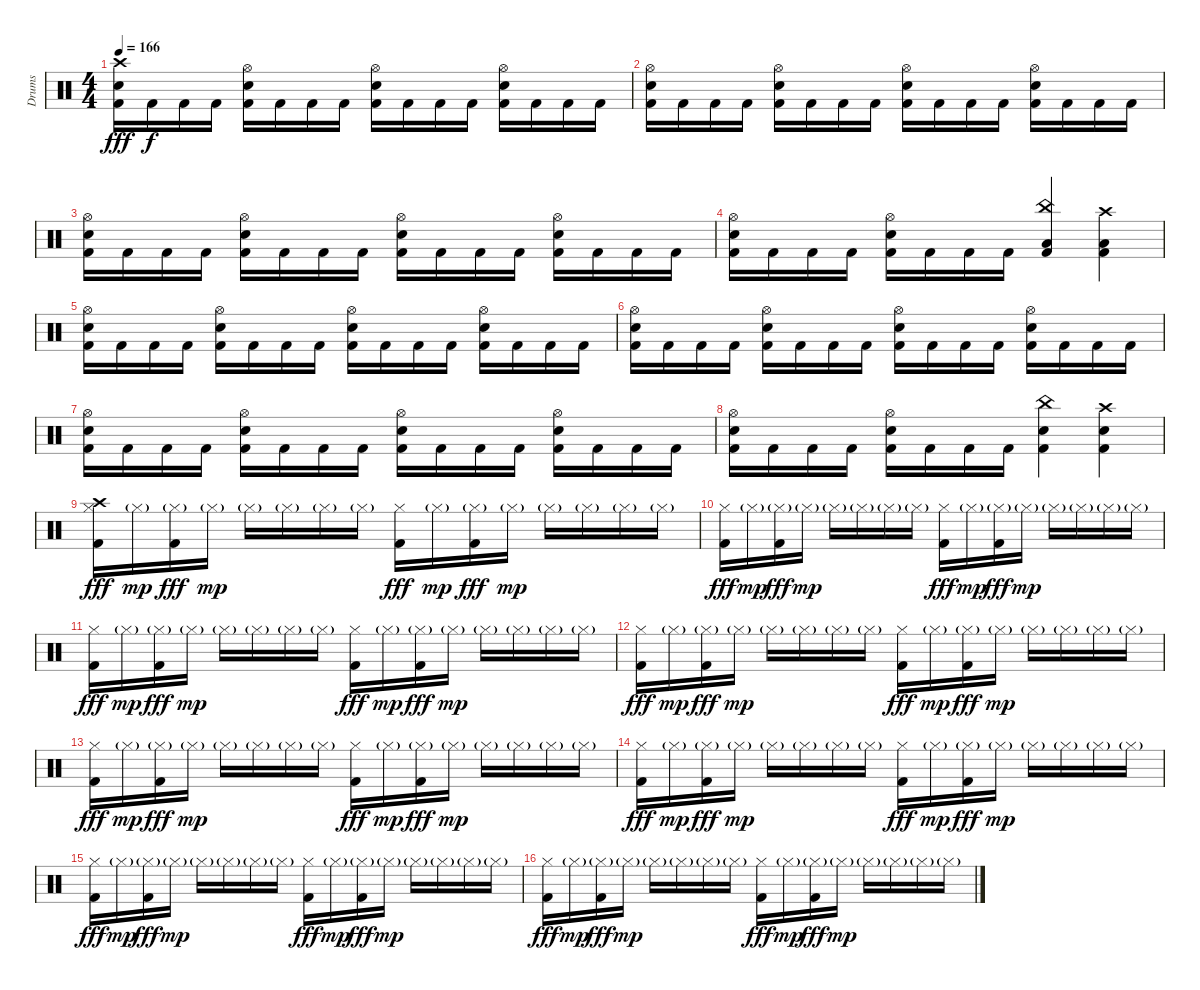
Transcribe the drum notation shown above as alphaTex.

\track ("Drums" "Drums") {instrument percussion}
\staff {score}
\articulation defaults
\ts (4 4)
\tempo 166
\clef neutral
\ks c
("Crash high (hit)" "Snare (hit) 2" "Kick (hit) 2").16{dy fff volume 16 balance 16} "Kick (hit) 2".16{dy f} "Kick (hit) 2".16 "Kick (hit) 2".16 ("Hi-Hat (open)" "Snare (hit) 2" "Kick (hit) 2").16 "Kick (hit) 2".16 "Kick (hit) 2".16 "Kick (hit) 2".16 ("Hi-Hat (open)" "Snare (hit) 2" "Kick (hit) 2").16 "Kick (hit) 2".16 "Kick (hit) 2".16 "Kick (hit) 2".16 ("Hi-Hat (open)" "Snare (hit) 2" "Kick (hit) 2").16 "Kick (hit) 2".16 "Kick (hit) 2".16 "Kick (hit) 2".16 |
("Hi-Hat (open)" "Snare (hit) 2" "Kick (hit) 2").16 "Kick (hit) 2".16 "Kick (hit) 2".16 "Kick (hit) 2".16 ("Hi-Hat (open)" "Snare (hit) 2" "Kick (hit) 2").16 "Kick (hit) 2".16 "Kick (hit) 2".16 "Kick (hit) 2".16 ("Hi-Hat (open)" "Snare (hit) 2" "Kick (hit) 2").16 "Kick (hit) 2".16 "Kick (hit) 2".16 "Kick (hit) 2".16 ("Hi-Hat (open)" "Snare (hit) 2" "Kick (hit) 2").16 "Kick (hit) 2".16 "Kick (hit) 2".16 "Kick (hit) 2".16 |
("Hi-Hat (open)" "Snare (hit) 2" "Kick (hit) 2").16 "Kick (hit) 2".16 "Kick (hit) 2".16 "Kick (hit) 2".16 ("Hi-Hat (open)" "Snare (hit) 2" "Kick (hit) 2").16 "Kick (hit) 2".16 "Kick (hit) 2".16 "Kick (hit) 2".16 ("Hi-Hat (open)" "Snare (hit) 2" "Kick (hit) 2").16 "Kick (hit) 2".16 "Kick (hit) 2".16 "Kick (hit) 2".16 ("Hi-Hat (open)" "Snare (hit) 2" "Kick (hit) 2").16 "Kick (hit) 2".16 "Kick (hit) 2".16 "Kick (hit) 2".16 |
("Hi-Hat (open)" "Snare (hit) 2" "Kick (hit) 2").16 "Kick (hit) 2".16 "Kick (hit) 2".16 "Kick (hit) 2".16 ("Hi-Hat (open)" "Snare (hit) 2" "Kick (hit) 2").16 "Kick (hit) 2".16 "Kick (hit) 2".16 "Kick (hit) 2".16 ("China (hit)" "Low Floor Tom (hit)" "Kick (hit) 2").4 ("Crash high (hit)" "Low Floor Tom (hit)" "Kick (hit) 2").4 |
("Hi-Hat (open)" "Snare (hit) 2" "Kick (hit) 2").16 "Kick (hit) 2".16 "Kick (hit) 2".16 "Kick (hit) 2".16 ("Hi-Hat (open)" "Snare (hit) 2" "Kick (hit) 2").16 "Kick (hit) 2".16 "Kick (hit) 2".16 "Kick (hit) 2".16 ("Hi-Hat (open)" "Snare (hit) 2" "Kick (hit) 2").16 "Kick (hit) 2".16 "Kick (hit) 2".16 "Kick (hit) 2".16 ("Hi-Hat (open)" "Snare (hit) 2" "Kick (hit) 2").16 "Kick (hit) 2".16 "Kick (hit) 2".16 "Kick (hit) 2".16 |
("Hi-Hat (open)" "Snare (hit) 2" "Kick (hit) 2").16 "Kick (hit) 2".16 "Kick (hit) 2".16 "Kick (hit) 2".16 ("Hi-Hat (open)" "Snare (hit) 2" "Kick (hit) 2").16 "Kick (hit) 2".16 "Kick (hit) 2".16 "Kick (hit) 2".16 ("Hi-Hat (open)" "Snare (hit) 2" "Kick (hit) 2").16 "Kick (hit) 2".16 "Kick (hit) 2".16 "Kick (hit) 2".16 ("Hi-Hat (open)" "Snare (hit) 2" "Kick (hit) 2").16 "Kick (hit) 2".16 "Kick (hit) 2".16 "Kick (hit) 2".16 |
("Hi-Hat (open)" "Snare (hit) 2" "Kick (hit) 2").16 "Kick (hit) 2".16 "Kick (hit) 2".16 "Kick (hit) 2".16 ("Hi-Hat (open)" "Snare (hit) 2" "Kick (hit) 2").16 "Kick (hit) 2".16 "Kick (hit) 2".16 "Kick (hit) 2".16 ("Hi-Hat (open)" "Snare (hit) 2" "Kick (hit) 2").16 "Kick (hit) 2".16 "Kick (hit) 2".16 "Kick (hit) 2".16 ("Hi-Hat (open)" "Snare (hit) 2" "Kick (hit) 2").16 "Kick (hit) 2".16 "Kick (hit) 2".16 "Kick (hit) 2".16 |
("Hi-Hat (open)" "Snare (hit) 2" "Kick (hit) 2").16 "Kick (hit) 2".16 "Kick (hit) 2".16 "Kick (hit) 2".16 ("Hi-Hat (open)" "Snare (hit) 2" "Kick (hit) 2").16 "Kick (hit) 2".16 "Kick (hit) 2".16 "Kick (hit) 2".16 ("China (hit)" "Snare (hit) 2" "Kick (hit) 2").4 ("Crash high (hit)" "Snare (hit) 2" "Kick (hit) 2").4 |
("Crash high (hit)" "Hi-Hat (closed)" "Kick (hit) 2").16{dy fff volume 15} "Hi-Hat (closed)"{g}.16{dy mp} ("Hi-Hat (closed)"{g} "Kick (hit) 2").16{dy fff} "Hi-Hat (closed)"{g}.16{dy mp} "Hi-Hat (closed)"{g}.16 "Hi-Hat (closed)"{g}.16 "Hi-Hat (closed)"{g}.16 "Hi-Hat (closed)"{g}.16 ("Hi-Hat (closed)" "Kick (hit) 2").16{dy fff} "Hi-Hat (closed)"{g}.16{dy mp} ("Hi-Hat (closed)"{g} "Kick (hit) 2").16{dy fff} "Hi-Hat (closed)"{g}.16{dy mp} "Hi-Hat (closed)"{g}.16 "Hi-Hat (closed)"{g}.16 "Hi-Hat (closed)"{g}.16 "Hi-Hat (closed)"{g}.16 |
("Hi-Hat (closed)" "Kick (hit) 2").16{dy fff} "Hi-Hat (closed)"{g}.16{dy mp} ("Hi-Hat (closed)"{g} "Kick (hit) 2").16{dy fff} "Hi-Hat (closed)"{g}.16{dy mp} "Hi-Hat (closed)"{g}.16 "Hi-Hat (closed)"{g}.16 "Hi-Hat (closed)"{g}.16 "Hi-Hat (closed)"{g}.16 ("Hi-Hat (closed)" "Kick (hit) 2").16{dy fff} "Hi-Hat (closed)"{g}.16{dy mp} ("Hi-Hat (closed)"{g} "Kick (hit) 2").16{dy fff} "Hi-Hat (closed)"{g}.16{dy mp} "Hi-Hat (closed)"{g}.16 "Hi-Hat (closed)"{g}.16 "Hi-Hat (closed)"{g}.16 "Hi-Hat (closed)"{g}.16 |
("Hi-Hat (closed)" "Kick (hit) 2").16{dy fff} "Hi-Hat (closed)"{g}.16{dy mp} ("Hi-Hat (closed)"{g} "Kick (hit) 2").16{dy fff} "Hi-Hat (closed)"{g}.16{dy mp} "Hi-Hat (closed)"{g}.16 "Hi-Hat (closed)"{g}.16 "Hi-Hat (closed)"{g}.16 "Hi-Hat (closed)"{g}.16 ("Hi-Hat (closed)" "Kick (hit) 2").16{dy fff} "Hi-Hat (closed)"{g}.16{dy mp} ("Hi-Hat (closed)"{g} "Kick (hit) 2").16{dy fff} "Hi-Hat (closed)"{g}.16{dy mp} "Hi-Hat (closed)"{g}.16 "Hi-Hat (closed)"{g}.16 "Hi-Hat (closed)"{g}.16 "Hi-Hat (closed)"{g}.16 |
("Hi-Hat (closed)" "Kick (hit) 2").16{dy fff} "Hi-Hat (closed)"{g}.16{dy mp} ("Hi-Hat (closed)"{g} "Kick (hit) 2").16{dy fff} "Hi-Hat (closed)"{g}.16{dy mp} "Hi-Hat (closed)"{g}.16 "Hi-Hat (closed)"{g}.16 "Hi-Hat (closed)"{g}.16 "Hi-Hat (closed)"{g}.16 ("Hi-Hat (closed)" "Kick (hit) 2").16{dy fff} "Hi-Hat (closed)"{g}.16{dy mp} ("Hi-Hat (closed)"{g} "Kick (hit) 2").16{dy fff} "Hi-Hat (closed)"{g}.16{dy mp} "Hi-Hat (closed)"{g}.16 "Hi-Hat (closed)"{g}.16 "Hi-Hat (closed)"{g}.16 "Hi-Hat (closed)"{g}.16 |
("Hi-Hat (closed)" "Kick (hit) 2").16{dy fff} "Hi-Hat (closed)"{g}.16{dy mp} ("Hi-Hat (closed)"{g} "Kick (hit) 2").16{dy fff} "Hi-Hat (closed)"{g}.16{dy mp} "Hi-Hat (closed)"{g}.16 "Hi-Hat (closed)"{g}.16 "Hi-Hat (closed)"{g}.16 "Hi-Hat (closed)"{g}.16 ("Hi-Hat (closed)" "Kick (hit) 2").16{dy fff} "Hi-Hat (closed)"{g}.16{dy mp} ("Hi-Hat (closed)"{g} "Kick (hit) 2").16{dy fff} "Hi-Hat (closed)"{g}.16{dy mp} "Hi-Hat (closed)"{g}.16 "Hi-Hat (closed)"{g}.16 "Hi-Hat (closed)"{g}.16 "Hi-Hat (closed)"{g}.16 |
("Hi-Hat (closed)" "Kick (hit) 2").16{dy fff} "Hi-Hat (closed)"{g}.16{dy mp} ("Hi-Hat (closed)"{g} "Kick (hit) 2").16{dy fff} "Hi-Hat (closed)"{g}.16{dy mp} "Hi-Hat (closed)"{g}.16 "Hi-Hat (closed)"{g}.16 "Hi-Hat (closed)"{g}.16 "Hi-Hat (closed)"{g}.16 ("Hi-Hat (closed)" "Kick (hit) 2").16{dy fff} "Hi-Hat (closed)"{g}.16{dy mp} ("Hi-Hat (closed)"{g} "Kick (hit) 2").16{dy fff} "Hi-Hat (closed)"{g}.16{dy mp} "Hi-Hat (closed)"{g}.16 "Hi-Hat (closed)"{g}.16 "Hi-Hat (closed)"{g}.16 "Hi-Hat (closed)"{g}.16 |
("Hi-Hat (closed)" "Kick (hit) 2").16{dy fff} "Hi-Hat (closed)"{g}.16{dy mp} ("Hi-Hat (closed)"{g} "Kick (hit) 2").16{dy fff} "Hi-Hat (closed)"{g}.16{dy mp} "Hi-Hat (closed)"{g}.16 "Hi-Hat (closed)"{g}.16 "Hi-Hat (closed)"{g}.16 "Hi-Hat (closed)"{g}.16 ("Hi-Hat (closed)" "Kick (hit) 2").16{dy fff} "Hi-Hat (closed)"{g}.16{dy mp} ("Hi-Hat (closed)"{g} "Kick (hit) 2").16{dy fff} "Hi-Hat (closed)"{g}.16{dy mp} "Hi-Hat (closed)"{g}.16 "Hi-Hat (closed)"{g}.16 "Hi-Hat (closed)"{g}.16 "Hi-Hat (closed)"{g}.16 |
("Hi-Hat (closed)" "Kick (hit) 2").16{dy fff} "Hi-Hat (closed)"{g}.16{dy mp} ("Hi-Hat (closed)"{g} "Kick (hit) 2").16{dy fff} "Hi-Hat (closed)"{g}.16{dy mp} "Hi-Hat (closed)"{g}.16 "Hi-Hat (closed)"{g}.16 "Hi-Hat (closed)"{g}.16 "Hi-Hat (closed)"{g}.16 ("Hi-Hat (closed)" "Kick (hit) 2").16{dy fff} "Hi-Hat (closed)"{g}.16{dy mp} ("Hi-Hat (closed)"{g} "Kick (hit) 2").16{dy fff} "Hi-Hat (closed)"{g}.16{dy mp} "Hi-Hat (closed)"{g}.16 "Hi-Hat (closed)"{g}.16 "Hi-Hat (closed)"{g}.16 "Hi-Hat (closed)"{g}.16
